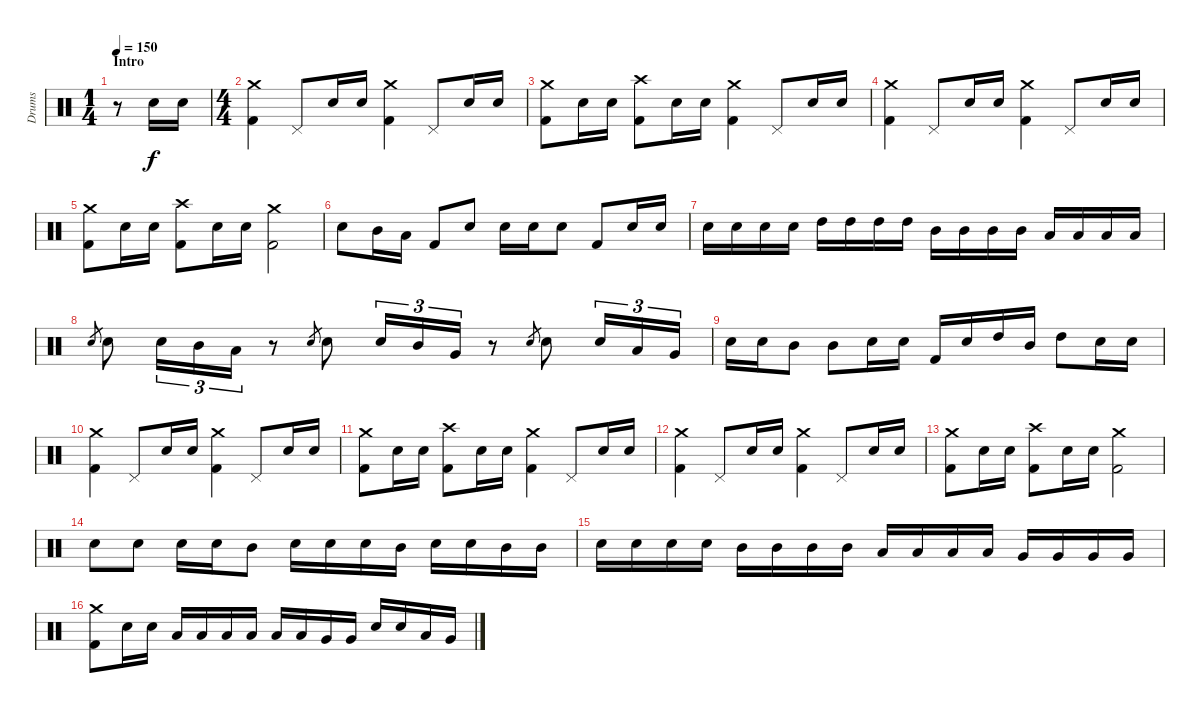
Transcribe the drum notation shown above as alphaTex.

\track ("Drums" "Drums") {instrument percussion}
\staff {score}
\articulation defaults
\ts (1 4)
\section ("" "Intro")
\tempo 150
\clef neutral
\ks c
r.8{dy f} "Electric Snare (hit)".16 "Electric Snare (hit)".16 |
\ts (4 4)
("Crash medium (hit)" "Kick (hit) 2").4 "Pedal Hi-Hat (hit)".8 "Electric Snare (hit)".16 "Electric Snare (hit)".16 ("Crash medium (hit)" "Kick (hit) 2").4 "Pedal Hi-Hat (hit)".8 "Electric Snare (hit)".16 "Electric Snare (hit)".16 |
("Crash medium (hit)" "Kick (hit) 2").8 "Electric Snare (hit)".16 "Electric Snare (hit)".16 ("Crash high (hit)" "Kick (hit) 2").8 "Electric Snare (hit)".16 "Electric Snare (hit)".16 ("Crash medium (hit)" "Kick (hit) 2").4 "Pedal Hi-Hat (hit)".8 "Electric Snare (hit)".16 "Electric Snare (hit)".16 |
("Crash medium (hit)" "Kick (hit) 2").4 "Pedal Hi-Hat (hit)".8 "Electric Snare (hit)".16 "Electric Snare (hit)".16 ("Crash medium (hit)" "Kick (hit) 2").4 "Pedal Hi-Hat (hit)".8 "Electric Snare (hit)".16 "Electric Snare (hit)".16 |
("Crash medium (hit)" "Kick (hit) 2").8 "Electric Snare (hit)".16 "Electric Snare (hit)".16 ("Crash high (hit)" "Kick (hit) 2").8 "Electric Snare (hit)".16 "Electric Snare (hit)".16 ("Crash medium (hit)" "Kick (hit) 2").2 |
"Electric Snare (hit)".8 "Mid Tom (hit)".16 "Low Tom (hit)".16 "Kick (hit) 2".8 "Electric Snare (hit)".8 "Electric Snare (hit)".16 "Electric Snare (hit)".16 "Electric Snare (hit)".8 "Kick (hit) 2".8 "Electric Snare (hit)".16 "Electric Snare (hit)".16 |
"Electric Snare (hit)".16 "Electric Snare (hit)".16 "Electric Snare (hit)".16 "Electric Snare (hit)".16 "High Tom (hit)".16 "High Tom (hit)".16 "High Tom (hit)".16 "High Tom (hit)".16 "Mid Tom (hit)".16 "Mid Tom (hit)".16 "Mid Tom (hit)".16 "Mid Tom (hit)".16 "Low Tom (hit)".16 "Low Tom (hit)".16 "Low Tom (hit)".16 "Low Tom (hit)".16 |
"Electric Snare (hit)".8{gr} "Electric Snare (hit)".8 "Electric Snare (hit)".16{tu (3 2)} "Mid Tom (hit)".16{tu (3 2)} "Low Tom (hit)".16{tu (3 2)} r.8 "Electric Snare (hit)".8{gr} "Electric Snare (hit)".8 "Electric Snare (hit)".16{tu (3 2)} "Mid Tom (hit)".16{tu (3 2)} "Very Low Tom (hit)".16{tu (3 2)} r.8 "Electric Snare (hit)".8{gr} "Electric Snare (hit)".8 "Electric Snare (hit)".16{tu (3 2)} "Low Tom (hit)".16{tu (3 2)} "Very Low Tom (hit)".16{tu (3 2)} |
"Electric Snare (hit)".16 "Electric Snare (hit)".16 "Mid Tom (hit)".8 "Mid Tom (hit)".8 "Electric Snare (hit)".16 "Electric Snare (hit)".16 "Kick (hit) 2".16 "Electric Snare (hit)".16 "High Tom (hit)".16 "Mid Tom (hit)".16 "High Tom (hit)".8 "Electric Snare (hit)".16 "Electric Snare (hit)".16 |
("Crash medium (hit)" "Kick (hit) 2").4 "Pedal Hi-Hat (hit)".8 "Electric Snare (hit)".16 "Electric Snare (hit)".16 ("Crash medium (hit)" "Kick (hit) 2").4 "Pedal Hi-Hat (hit)".8 "Electric Snare (hit)".16 "Electric Snare (hit)".16 |
("Crash medium (hit)" "Kick (hit) 2").8 "Electric Snare (hit)".16 "Electric Snare (hit)".16 ("Crash high (hit)" "Kick (hit) 2").8 "Electric Snare (hit)".16 "Electric Snare (hit)".16 ("Crash medium (hit)" "Kick (hit) 2").4 "Pedal Hi-Hat (hit)".8 "Electric Snare (hit)".16 "Electric Snare (hit)".16 |
("Crash medium (hit)" "Kick (hit) 2").4 "Pedal Hi-Hat (hit)".8 "Electric Snare (hit)".16 "Electric Snare (hit)".16 ("Crash medium (hit)" "Kick (hit) 2").4 "Pedal Hi-Hat (hit)".8 "Electric Snare (hit)".16 "Electric Snare (hit)".16 |
("Crash medium (hit)" "Kick (hit) 2").8 "Electric Snare (hit)".16 "Electric Snare (hit)".16 ("Crash high (hit)" "Kick (hit) 2").8 "Electric Snare (hit)".16 "Electric Snare (hit)".16 ("Crash medium (hit)" "Kick (hit) 2").2 |
"Electric Snare (hit)".8 "Electric Snare (hit)".8 "Electric Snare (hit)".16 "Electric Snare (hit)".16 "Mid Tom (hit)".8 "Electric Snare (hit)".16 "Electric Snare (hit)".16 "Electric Snare (hit)".16 "Mid Tom (hit)".16 "Electric Snare (hit)".16 "Electric Snare (hit)".16 "Mid Tom (hit)".16 "Mid Tom (hit)".16 |
"Electric Snare (hit)".16 "Electric Snare (hit)".16 "Electric Snare (hit)".16 "Electric Snare (hit)".16 "Mid Tom (hit)".16 "Mid Tom (hit)".16 "Mid Tom (hit)".16 "Mid Tom (hit)".16 "Low Tom (hit)".16 "Low Tom (hit)".16 "Low Tom (hit)".16 "Low Tom (hit)".16 "Very Low Tom (hit)".16 "Very Low Tom (hit)".16 "Very Low Tom (hit)".16 "Very Low Tom (hit)".16 |
("Crash medium (hit)" "Kick (hit) 2").8 "Electric Snare (hit)".16 "Electric Snare (hit)".16 "Low Tom (hit)".16 "Low Tom (hit)".16 "Low Floor Tom (hit)".16 "Low Floor Tom (hit)".16 "Low Floor Tom (hit)".16 "Low Floor Tom (hit)".16 "Very Low Tom (hit)".16 "Very Low Tom (hit)".16 "Electric Snare (hit)".16 "Electric Snare (hit)".16 "Low Tom (hit)".16 "Very Low Tom (hit)".16
